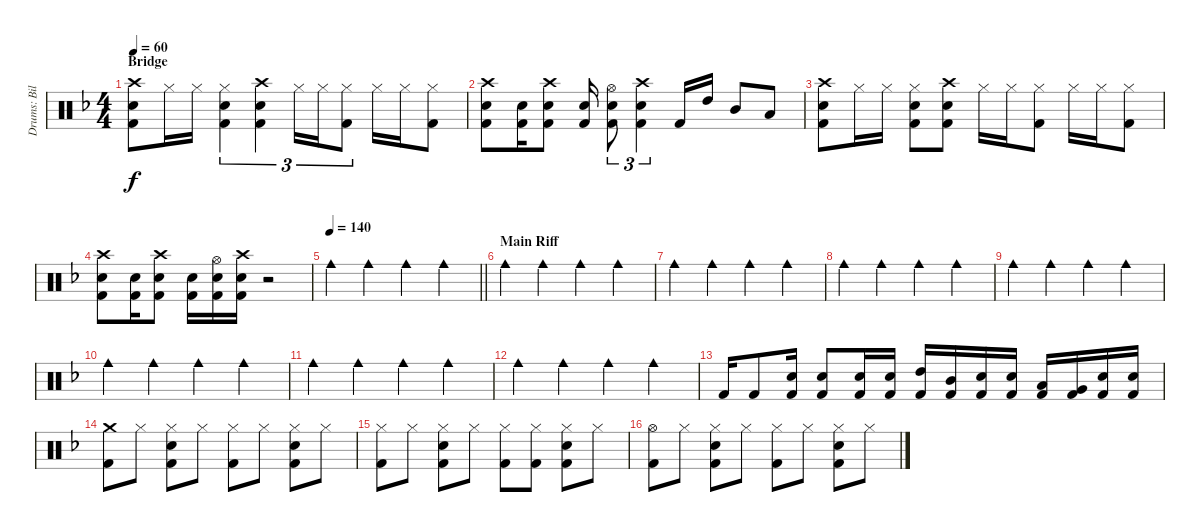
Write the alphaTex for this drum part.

\track ("Drums: Bill" "Drums: Bil") {instrument percussion}
\staff {score}
\articulation defaults
\ts (4 4)
\section ("" "Bridge")
\tempo 60
\clef neutral
\ks f
("Crash high (hit)" "Snare (hit) 2" "Kick (hit) 2").8{dy f} "Hi-Hat (closed)".16 "Hi-Hat (closed)".16 ("Hi-Hat (closed)" "Snare (hit) 2" "Kick (hit) 2").4{tu (3 2)} ("Crash high (hit)" "Snare (hit) 2" "Kick (hit) 2").4{tu (3 2)} "Hi-Hat (closed)".16{tu (3 2)} "Hi-Hat (closed)".16{tu (3 2)} ("Hi-Hat (closed)" "Kick (hit) 2").8{tu (3 2)} "Hi-Hat (closed)".16 "Hi-Hat (closed)".16 ("Hi-Hat (closed)" "Kick (hit) 2").8 |
("Crash high (hit)" "Snare (hit) 2" "Kick (hit) 2").8 ("Snare (hit) 2" "Kick (hit) 2").16 ("Crash high (hit)" "Snare (hit) 2" "Kick (hit) 2").8 ("Snare (hit) 2" "Kick (hit) 2").16 ("Hi-Hat (open)" "Snare (hit) 2" "Kick (hit) 2").8{tu (3 2)} ("Crash high (hit)" "Snare (hit) 2" "Kick (hit) 2").4{tu (3 2)} "Kick (hit) 2".16 "High Tom (hit)".16 "Mid Tom (hit)".8 "Low Tom (hit)".8 |
("Crash high (hit)" "Snare (hit) 2" "Kick (hit) 2").8 "Hi-Hat (closed)".16 "Hi-Hat (closed)".16 ("Hi-Hat (closed)" "Snare (hit) 2" "Kick (hit) 2").8 ("Crash high (hit)" "Snare (hit) 2" "Kick (hit) 2").8 "Hi-Hat (closed)".16 "Hi-Hat (closed)".16 ("Hi-Hat (closed)" "Kick (hit) 2").8 "Hi-Hat (closed)".16 "Hi-Hat (closed)".16 ("Hi-Hat (closed)" "Kick (hit) 2").8 |
("Crash high (hit)" "Snare (hit) 2" "Kick (hit) 2").8 ("Snare (hit) 2" "Kick (hit) 2").16 ("Crash high (hit)" "Snare (hit) 2" "Kick (hit) 2").8 ("Snare (hit) 2" "Kick (hit) 2").16 ("Hi-Hat (open)" "Snare (hit) 2" "Kick (hit) 2").16 ("Crash high (hit)" "Snare (hit) 2" "Kick (hit) 2").16 r.2 |
\tempo 140
\barLineRight lightlight "Cowbell medium (hit)".4 "Cowbell medium (hit)".4 "Cowbell medium (hit)".4 "Cowbell medium (hit)".4
|
\section ("" "Main Riff")
"Cowbell medium (hit)".4 "Cowbell medium (hit)".4 "Cowbell medium (hit)".4 "Cowbell medium (hit)".4 |
"Cowbell medium (hit)".4 "Cowbell medium (hit)".4 "Cowbell medium (hit)".4 "Cowbell medium (hit)".4 |
"Cowbell medium (hit)".4 "Cowbell medium (hit)".4 "Cowbell medium (hit)".4 "Cowbell medium (hit)".4 |
"Cowbell medium (hit)".4 "Cowbell medium (hit)".4 "Cowbell medium (hit)".4 "Cowbell medium (hit)".4 |
"Cowbell medium (hit)".4 "Cowbell medium (hit)".4 "Cowbell medium (hit)".4 "Cowbell medium (hit)".4 |
"Cowbell medium (hit)".4 "Cowbell medium (hit)".4 "Cowbell medium (hit)".4 "Cowbell medium (hit)".4 |
"Cowbell medium (hit)".4 "Cowbell medium (hit)".4 "Cowbell medium (hit)".4 "Cowbell medium (hit)".4 |
"Kick (hit) 2".16 "Kick (hit) 2".8 ("Electric Snare (hit)" "Kick (hit) 2").16 ("Electric Snare (hit)" "Kick (hit) 2").8 ("Snare (hit) 2" "Kick (hit) 2").16 ("Snare (hit) 2" "Kick (hit) 2").16 ("High Tom (hit)" "Kick (hit) 2").16 ("Mid Tom (hit)" "Kick (hit) 2").16 ("Electric Snare (hit)" "Kick (hit) 2").16 ("Electric Snare (hit)" "Kick (hit) 2").16 ("Low Tom (hit)" "Kick (hit) 2").16 ("Very Low Tom (hit)" "Kick (hit) 2").16 ("Snare (hit) 2" "Kick (hit) 2").16 ("Snare (hit) 2" "Kick (hit) 2").16 |
("Crash medium (hit)" "Kick (hit) 2").8 "Hi-Hat (closed)".8 ("Hi-Hat (closed)" "Snare (hit) 2" "Kick (hit) 2").8 "Hi-Hat (closed)".8 ("Hi-Hat (closed)" "Kick (hit) 2").8 "Hi-Hat (closed)".8 ("Hi-Hat (closed)" "Snare (hit) 2" "Kick (hit) 2").8 "Hi-Hat (closed)".8 |
("Hi-Hat (closed)" "Kick (hit) 2").8 "Hi-Hat (closed)".8 ("Hi-Hat (closed)" "Snare (hit) 2" "Kick (hit) 2").8 "Hi-Hat (closed)".8 ("Hi-Hat (closed)" "Kick (hit) 2").8 ("Hi-Hat (closed)" "Kick (hit) 2").8 ("Hi-Hat (closed)" "Snare (hit) 2" "Kick (hit) 2").8 "Hi-Hat (closed)".8 |
("Hi-Hat (open)" "Kick (hit) 2").8 "Hi-Hat (closed)".8 ("Hi-Hat (closed)" "Snare (hit) 2" "Kick (hit) 2").8 "Hi-Hat (closed)".8 ("Hi-Hat (closed)" "Kick (hit) 2").8 "Hi-Hat (closed)".8 ("Hi-Hat (closed)" "Snare (hit) 2" "Kick (hit) 2").8 "Hi-Hat (closed)".8
